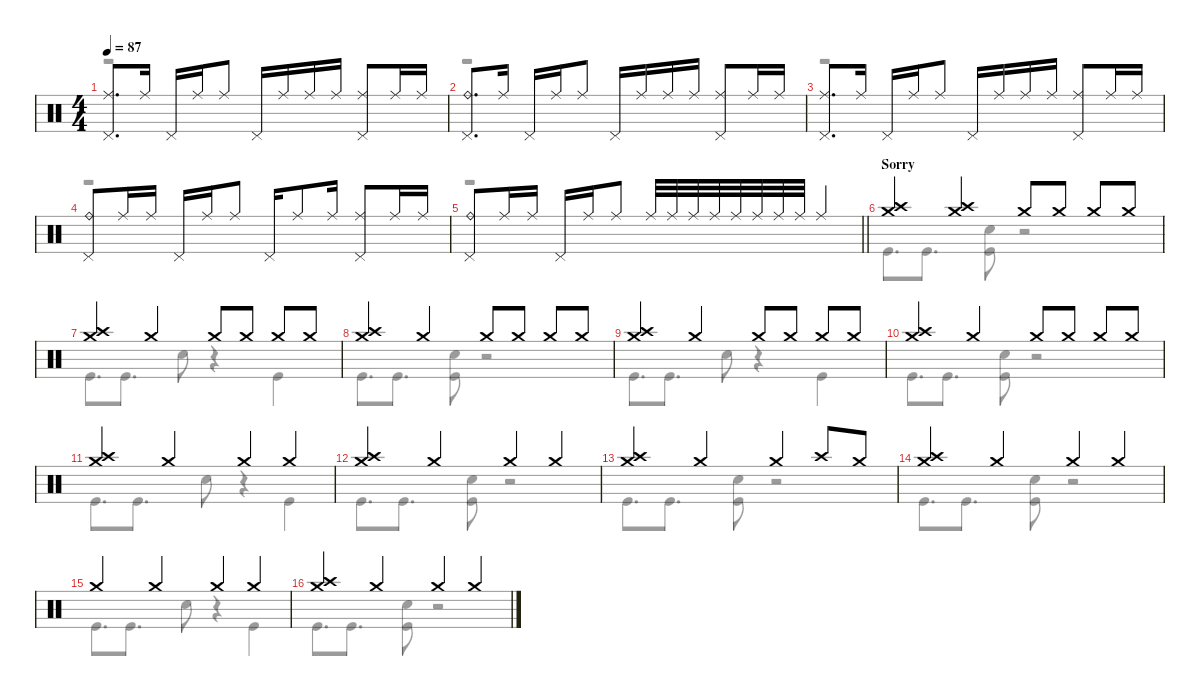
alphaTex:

\defaultSystemsLayout 4
\hideDynamics
\bracketExtendMode nobrackets
\singleTrackTrackNamePolicy hidden
\multiTrackTrackNamePolicy hidden
\firstSystemTrackNameMode fullname
\otherSystemsTrackNameOrientation horizontal
\track ("Drums" "drm.") {instrument percussion}
\staff {score}
\articulation defaults
\voice
\ts (4 4)
\tempo 87
\clef neutral
\ks c
("Ride (middle)" "Pedal Hi-Hat (hit)").8{d dy mf beam Up} "Ride (middle)".16{beam Up} "Pedal Hi-Hat (hit)".16{beam Up} "Ride (middle)".16{beam Up} "Ride (middle)".8{beam Up} "Pedal Hi-Hat (hit)".16{beam Up} "Ride (middle)".16{beam Up} "Ride (middle)".16{beam Up} "Ride (middle)".16{beam Up} ("Ride (middle)" "Pedal Hi-Hat (hit)").8{beam Up} "Ride (middle)".16{beam Up} "Ride (middle)".16{beam Up} |
("Ride (bell)" "Pedal Hi-Hat (hit)").8{d beam Up} "Ride (middle)".16{beam Up} "Pedal Hi-Hat (hit)".16{beam Up} "Ride (middle)".16{beam Up} "Ride (middle)".8{beam Up} "Pedal Hi-Hat (hit)".16{beam Up} "Ride (middle)".16{beam Up} "Ride (middle)".16{beam Up} "Ride (middle)".16{beam Up} ("Ride (middle)" "Pedal Hi-Hat (hit)").8{beam Up} "Ride (middle)".16{beam Up} "Ride (middle)".16{beam Up} |
("Ride (middle)" "Pedal Hi-Hat (hit)").8{d beam Up} "Ride (middle)".16{beam Up} "Pedal Hi-Hat (hit)".16{beam Up} "Ride (middle)".16{beam Up} "Ride (middle)".8{beam Up} "Pedal Hi-Hat (hit)".16{beam Up} "Ride (middle)".16{beam Up} "Ride (middle)".16{beam Up} "Ride (middle)".16{beam Up} ("Ride (middle)" "Pedal Hi-Hat (hit)").8{beam Up} "Ride (middle)".16{beam Up} "Ride (middle)".16{beam Up} |
("Ride (bell)" "Pedal Hi-Hat (hit)").8{beam Up} "Ride (middle)".16{beam Up} "Ride (middle)".16{beam Up} "Pedal Hi-Hat (hit)".16{beam Up} "Ride (middle)".16{beam Up} "Ride (middle)".8{beam Up} "Pedal Hi-Hat (hit)".16{beam Up} "Ride (middle)".8{dy f beam Up} "Ride (middle)".16{dy mf beam Up} ("Ride (middle)" "Pedal Hi-Hat (hit)").8{beam Up} "Ride (middle)".16{beam Up} "Ride (middle)".16{beam Up} |
\barLineRight lightlight
("Ride (bell)" "Pedal Hi-Hat (hit)").8{beam Up} "Ride (middle)".16{dy f beam Up} "Ride (middle)".16{dy mf beam Up} "Pedal Hi-Hat (hit)".16{beam Up} "Ride (middle)".16{beam Up} "Ride (middle)".8{beam Up} "Ride (middle)".32{dy pp beam Up} "Ride (middle)".32{beam Up} "Ride (middle)".32{dy p beam Up} "Ride (middle)".32{beam Up} "Ride (middle)".32{dy mp beam Up} "Ride (middle)".32{beam Up} "Ride (middle)".32{dy mf beam Up} "Ride (middle)".32{beam Up} "Ride (middle)".4{beam Up} |
\section ("" "Sorry ")
("Crash medium (hit)" "Crash high (hit)").4{dy f beam Up} ("Crash medium (hit)" "Crash high (hit)").4{beam Up} "Crash medium (hit)".8{dy mf beam Up} "Crash medium (hit)".8{dy mp beam Up} "Crash medium (hit)".8{dy mf beam Up} "Crash medium (hit)".8{dy mp beam Up} |
("Crash medium (hit)" "Crash high (hit)").4{dy f beam Up} "Crash medium (hit)".4{beam Up} "Crash medium (hit)".8{dy mf beam Up} "Crash medium (hit)".8{dy mp beam Up} "Crash medium (hit)".8{dy mf beam Up} "Crash medium (hit)".8{dy mp beam Up} |
("Crash medium (hit)" "Crash high (hit)").4{dy f beam Up} "Crash medium (hit)".4{beam Up} "Crash medium (hit)".8{dy mf beam Up} "Crash medium (hit)".8{dy mp beam Up} "Crash medium (hit)".8{dy mf beam Up} "Crash medium (hit)".8{dy mp beam Up} |
("Crash medium (hit)" "Crash high (hit)").4{dy f beam Up} "Crash medium (hit)".4{beam Up} "Crash medium (hit)".8{dy mf beam Up} "Crash medium (hit)".8{dy mp beam Up} "Crash medium (hit)".8{dy mf beam Up} "Crash medium (hit)".8{dy mp beam Up} |
("Crash medium (hit)" "Crash high (hit)").4{dy f beam Up} "Crash medium (hit)".4{beam Up} "Crash medium (hit)".8{beam Up} "Crash medium (hit)".8{dy mp beam Up} "Crash medium (hit)".8{dy f beam Up} "Crash medium (hit)".8{dy mp beam Up} |
("Crash medium (hit)" "Crash high (hit)").4{dy f beam Up} "Crash medium (hit)".4{beam Up} "Crash medium (hit)".4{beam Up} "Crash medium (hit)".4{beam Up} |
("Crash medium (hit)" "Crash high (hit)").4{beam Up} "Crash medium (hit)".4{beam Up} "Crash medium (hit)".4{beam Up} "Crash medium (hit)".4{beam Up} |
("Crash medium (hit)" "Crash high (hit)").4{beam Up} "Crash medium (hit)".4{beam Up} "Crash medium (hit)".4{beam Up} "Crash high (hit)".8{beam Up} "Crash medium (hit)".8{dy mf beam Up} |
("Crash medium (hit)" "Crash high (hit)").4{dy f beam Up} "Crash medium (hit)".4{beam Up} "Crash medium (hit)".4{beam Up} "Crash medium (hit)".4{beam Up} |
"Crash medium (hit)".4{beam Up} "Crash medium (hit)".4{beam Up} "Crash medium (hit)".4{beam Up} "Crash medium (hit)".4{beam Up} |
("Crash medium (hit)" "Crash high (hit)").4{beam Up} "Crash medium (hit)".4{beam Up} "Crash medium (hit)".4{beam Up} "Crash medium (hit)".4{beam Up}
\voice
\clef neutral
\ottava regular
\simile none
\ks c
r.1{dy p beam Down} |
r.1{beam Down} |
r.1{beam Down} |
r.1{beam Down} |
\barLineRight lightlight
r.1{beam Down} |
"Kick (hit)".8{d dy f beam Down} "Kick (hit)".8{d beam Down} ("Snare (hit) 2" "Kick (hit)").8{beam Down} r.2{beam Down} |
"Kick (hit)".8{d beam Down} "Kick (hit)".8{d beam Down} "Snare (hit) 2".8{beam Down} r.4{beam Down} "Kick (hit)".4{beam Down} |
"Kick (hit)".8{d beam Down} "Kick (hit)".8{d beam Down} ("Snare (hit) 2" "Kick (hit)").8{beam Down} r.2{beam Down} |
"Kick (hit)".8{d beam Down} "Kick (hit)".8{d beam Down} "Snare (hit) 2".8{beam Down} r.4{beam Down} "Kick (hit)".4{beam Down} |
"Kick (hit)".8{d beam Down} "Kick (hit)".8{d beam Down} ("Snare (hit) 2" "Kick (hit)").8{beam Down} r.2{beam Down} |
"Kick (hit)".8{d beam Down} "Kick (hit)".8{d beam Down} "Snare (hit) 2".8{beam Down} r.4{beam Down} "Kick (hit)".4{beam Down} |
"Kick (hit)".8{d beam Down} "Kick (hit)".8{d beam Down} ("Snare (hit) 2" "Kick (hit)").8{beam Down} r.2{beam Down} |
"Kick (hit)".8{d beam Down} "Kick (hit)".8{d beam Down} ("Snare (hit) 2" "Kick (hit)").8{beam Down} r.2{beam Down} |
"Kick (hit)".8{d beam Down} "Kick (hit)".8{d beam Down} ("Snare (hit) 2" "Kick (hit)").8{beam Down} r.2{beam Down} |
"Kick (hit)".8{d beam Down} "Kick (hit)".8{d beam Down} "Snare (hit) 2".8{beam Down} r.4{beam Down} "Kick (hit)".4{beam Down} |
"Kick (hit)".8{d beam Down} "Kick (hit)".8{d beam Down} ("Snare (hit) 2" "Kick (hit)").8{beam Down} r.2{beam Down}
